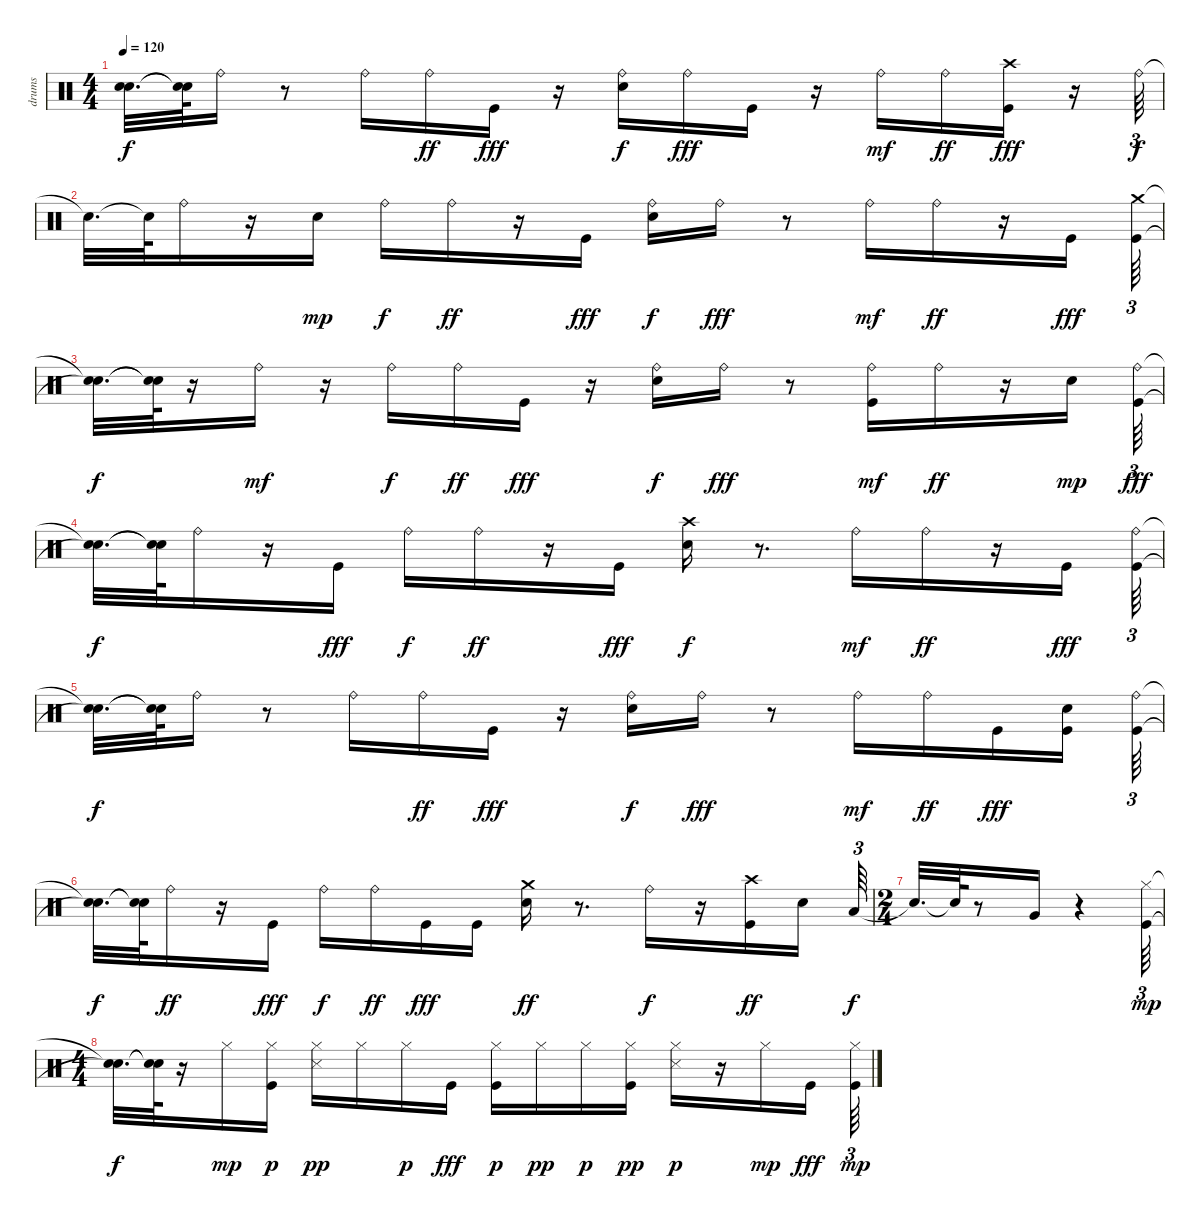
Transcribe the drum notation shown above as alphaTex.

\track ("drums" "drums") {instrument percussion}
\staff {score}
\articulation defaults
\ts (4 4)
\tempo 120
\clef neutral
\ks c
("Snare (hit)"{t} "Snare (hit)"{t}).32{d dy f} ("Snare (hit)"{t} "Snare (hit)"{t}).64 "Ride (bell)".16 r.8 "Ride (bell)".16 "Ride (bell)".16{dy ff} "Kick (hit)".16{dy fff} r.16 ("Snare (hit) 2" "Ride (bell)").16{dy f} "Ride (bell)".16{dy fff} "Kick (hit)".16 r.16 "Ride (bell)".16{dy mf} "Ride (bell)".16{dy ff} ("Kick (hit)" "Crash high (hit)").16{dy fff} r.16 "Ride (bell)".64{tu (3 2) dy f} |
"Snare (hit)"{t}.32{d} "Snare (hit)"{t}.64 "Ride (bell)".16 r.16 "Snare (hit) 2".16{dy mp} "Ride (bell)".16{dy f} "Ride (bell)".16{dy ff} r.16 "Kick (hit)".16{dy fff} ("Snare (hit) 2" "Ride (bell)").16{dy f} "Ride (bell)".16{dy fff} r.8 "Ride (bell)".16{dy mf} "Ride (bell)".16{dy ff} r.16 "Kick (hit)".16{dy fff} ("Kick (hit)" "Crash medium (hit)").64{tu (3 2)} |
("Snare (hit)"{t} "Snare (hit)"{t}).32{d dy f} ("Snare (hit)"{t} "Snare (hit)"{t}).64 r.16 "Ride (bell)".16{dy mf} r.16 "Ride (bell)".16{dy f} "Ride (bell)".16{dy ff} "Kick (hit)".16{dy fff} r.16 ("Snare (hit) 2" "Ride (bell)").16{dy f} "Ride (bell)".16{dy fff} r.8 ("Kick (hit)" "Ride (bell)").16{dy mf} "Ride (bell)".16{dy ff} r.16 "Snare (hit) 2".16{dy mp} ("Kick (hit)" "Ride (bell)").64{tu (3 2) dy fff} |
("Snare (hit)"{t} "Snare (hit)"{t}).32{d dy f} ("Snare (hit)"{t} "Snare (hit)"{t}).64 "Ride (bell)".16 r.16 "Kick (hit)".16{dy fff} "Ride (bell)".16{dy f} "Ride (bell)".16{dy ff} r.16 "Kick (hit)".16{dy fff} ("Snare (hit) 2" "Crash high (hit)").16{dy f} r.8{d} "Ride (bell)".16{dy mf} "Ride (bell)".16{dy ff} r.16 "Kick (hit)".16{dy fff} ("Kick (hit)" "Ride (bell)").64{tu (3 2)} |
("Snare (hit)"{t} "Snare (hit)"{t}).32{d dy f} ("Snare (hit)"{t} "Snare (hit)"{t}).64 "Ride (bell)".16 r.8 "Ride (bell)".16 "Ride (bell)".16{dy ff} "Kick (hit)".16{dy fff} r.16 ("Snare (hit) 2" "Ride (bell)").16{dy f} "Ride (bell)".16{dy fff} r.8 "Ride (bell)".16{dy mf} "Ride (bell)".16{dy ff} "Kick (hit)".16{dy fff} ("Snare (hit) 2" "Kick (hit)").16 ("Kick (hit)" "Ride (bell)").64{tu (3 2)} |
("Snare (hit)"{t} "Snare (hit)"{t}).32{d dy f} ("Snare (hit)"{t} "Snare (hit)"{t}).64 "Ride (bell)".16{dy ff} r.16 "Kick (hit)".16{dy fff} "Ride (bell)".16{dy f} "Ride (bell)".16{dy ff} "Kick (hit)".16{dy fff} "Kick (hit)".16 ("Snare (hit) 2" "Crash medium (hit)").16{dy ff} r.8{d} "Ride (bell)".16{dy f} r.16 ("Kick (hit)" "Crash high (hit)").16{dy ff} "Snare (hit) 2".16 "Low Tom (hit)".64{tu (3 2) dy f} |
\ts (2 4)
"Snare (hit)"{t}.32{d} "Snare (hit)"{t}.64 r.8 "Very Low Tom (hit)".16 r.4 ("Kick (hit)" "Hi-Hat (closed)").64{tu (3 2) dy mp} |
\ts (4 4)
("Snare (hit)"{t} "Snare (hit)"{t}).32{d dy f} ("Snare (hit)"{t} "Snare (hit)"{t}).64 r.16 "Hi-Hat (closed)".16{dy mp} ("Kick (hit)" "Hi-Hat (closed)").16{dy p} ("Snare (side stick) 3" "Hi-Hat (closed)").16{dy pp} "Hi-Hat (closed)".16 "Hi-Hat (closed)".16{dy p} "Kick (hit)".16{dy fff} ("Kick (hit)" "Hi-Hat (closed)").16{dy p} "Hi-Hat (closed)".16{dy pp} "Hi-Hat (closed)".16{dy p} ("Kick (hit)" "Hi-Hat (closed)").16{dy pp} ("Snare (side stick) 3" "Hi-Hat (closed)").16{dy p} r.16 "Hi-Hat (closed)".16{dy mp} "Kick (hit)".16{dy fff} ("Kick (hit)" "Hi-Hat (closed)").64{tu (3 2) dy mp}
